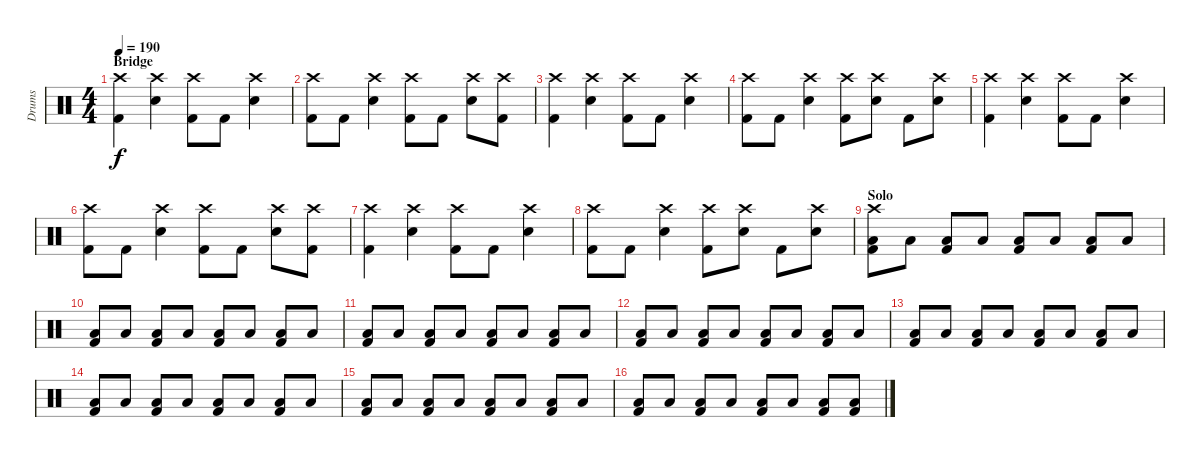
\track ("Drums" "Drums") {instrument percussion}
\staff {score}
\articulation defaults
\ts (4 4)
\section ("" "Bridge")
\tempo 190
\clef neutral
\ks c
("Crash high (hit)" "Kick (hit) 2").4{dy f} ("Crash high (hit)" "Snare (hit) 2").4 ("Crash high (hit)" "Kick (hit) 2").8 "Kick (hit) 2".8 ("Crash high (hit)" "Snare (hit) 2").4 |
("Crash high (hit)" "Kick (hit) 2").8 "Kick (hit) 2".8 ("Crash high (hit)" "Snare (hit) 2").4 ("Crash high (hit)" "Kick (hit) 2").8 "Kick (hit) 2".8 ("Crash high (hit)" "Snare (hit) 2").8 ("Crash high (hit)" "Kick (hit) 2").8 |
("Crash high (hit)" "Kick (hit) 2").4 ("Crash high (hit)" "Snare (hit) 2").4 ("Crash high (hit)" "Kick (hit) 2").8 "Kick (hit) 2".8 ("Crash high (hit)" "Snare (hit) 2").4 |
("Crash high (hit)" "Kick (hit) 2").8 "Kick (hit) 2".8 ("Crash high (hit)" "Snare (hit) 2").4 ("Crash high (hit)" "Kick (hit) 2").8 ("Crash high (hit)" "Snare (hit) 2").8 "Kick (hit) 2".8 ("Crash high (hit)" "Snare (hit) 2").8 |
("Crash high (hit)" "Kick (hit) 2").4 ("Crash high (hit)" "Snare (hit) 2").4 ("Crash high (hit)" "Kick (hit) 2").8 "Kick (hit) 2".8 ("Crash high (hit)" "Snare (hit) 2").4 |
("Crash high (hit)" "Kick (hit) 2").8 "Kick (hit) 2".8 ("Crash high (hit)" "Snare (hit) 2").4 ("Crash high (hit)" "Kick (hit) 2").8 "Kick (hit) 2".8 ("Crash high (hit)" "Snare (hit) 2").8 ("Crash high (hit)" "Kick (hit) 2").8 |
("Crash high (hit)" "Kick (hit) 2").4 ("Crash high (hit)" "Snare (hit) 2").4 ("Crash high (hit)" "Kick (hit) 2").8 "Kick (hit) 2".8 ("Crash high (hit)" "Snare (hit) 2").4 |
("Crash high (hit)" "Kick (hit) 2").8 "Kick (hit) 2".8 ("Crash high (hit)" "Snare (hit) 2").4 ("Crash high (hit)" "Kick (hit) 2").8 ("Crash high (hit)" "Snare (hit) 2").8 "Kick (hit) 2".8 ("Crash high (hit)" "Snare (hit) 2").8 |
\section ("" "Solo")
("Crash high (hit)" "Low Tom (hit)" "Kick (hit) 2").8 "Low Tom (hit)".8 ("Low Tom (hit)" "Kick (hit) 2").8 "Low Tom (hit)".8 ("Low Tom (hit)" "Kick (hit) 2").8 "Low Tom (hit)".8 ("Low Tom (hit)" "Kick (hit) 2").8 "Low Tom (hit)".8 |
("Low Tom (hit)" "Kick (hit) 2").8 "Low Tom (hit)".8 ("Low Tom (hit)" "Kick (hit) 2").8 "Low Tom (hit)".8 ("Low Tom (hit)" "Kick (hit) 2").8 "Low Tom (hit)".8 ("Low Tom (hit)" "Kick (hit) 2").8 "Low Tom (hit)".8 |
("Low Tom (hit)" "Kick (hit) 2").8 "Low Tom (hit)".8 ("Low Tom (hit)" "Kick (hit) 2").8 "Low Tom (hit)".8 ("Low Tom (hit)" "Kick (hit) 2").8 "Low Tom (hit)".8 ("Low Tom (hit)" "Kick (hit) 2").8 "Low Tom (hit)".8 |
("Low Tom (hit)" "Kick (hit) 2").8 "Low Tom (hit)".8 ("Low Tom (hit)" "Kick (hit) 2").8 "Low Tom (hit)".8 ("Low Tom (hit)" "Kick (hit) 2").8 "Low Tom (hit)".8 ("Low Tom (hit)" "Kick (hit) 2").8 "Low Tom (hit)".8 |
("Low Tom (hit)" "Kick (hit) 2").8 "Low Tom (hit)".8 ("Low Tom (hit)" "Kick (hit) 2").8 "Low Tom (hit)".8 ("Low Tom (hit)" "Kick (hit) 2").8 "Low Tom (hit)".8 ("Low Tom (hit)" "Kick (hit) 2").8 "Low Tom (hit)".8 |
("Low Tom (hit)" "Kick (hit) 2").8 "Low Tom (hit)".8 ("Low Tom (hit)" "Kick (hit) 2").8 "Low Tom (hit)".8 ("Low Tom (hit)" "Kick (hit) 2").8 "Low Tom (hit)".8 ("Low Tom (hit)" "Kick (hit) 2").8 "Low Tom (hit)".8 |
("Low Tom (hit)" "Kick (hit) 2").8 "Low Tom (hit)".8 ("Low Tom (hit)" "Kick (hit) 2").8 "Low Tom (hit)".8 ("Low Tom (hit)" "Kick (hit) 2").8 "Low Tom (hit)".8 ("Low Tom (hit)" "Kick (hit) 2").8 "Low Tom (hit)".8 |
("Low Tom (hit)" "Kick (hit) 2").8 "Low Tom (hit)".8 ("Low Tom (hit)" "Kick (hit) 2").8 "Low Tom (hit)".8 ("Low Tom (hit)" "Kick (hit) 2").8 "Low Tom (hit)".8 ("Low Tom (hit)" "Kick (hit) 2").8 ("Low Tom (hit)" "Kick (hit) 2").8
